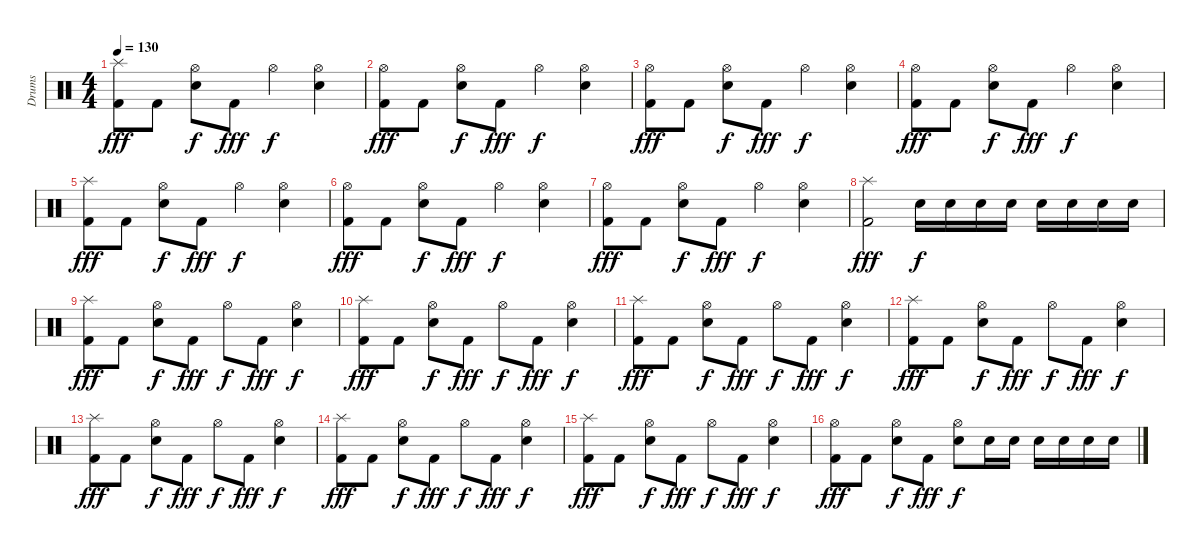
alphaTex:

\track ("Drums" "Drums") {instrument percussion}
\staff {score}
\articulation defaults
\ts (4 4)
\tempo 130
\clef neutral
\ks c
("Splash (hit)" "Kick (hit) 2").8{dy fff} "Kick (hit) 2".8 ("Hi-Hat (open)" "Snare (hit) 2").8{dy f} "Kick (hit) 2".8{dy fff} "Hi-Hat (open)".4{dy f} ("Hi-Hat (open)" "Snare (hit) 2").4 |
("Hi-Hat (open)" "Kick (hit) 2").8{dy fff} "Kick (hit) 2".8 ("Hi-Hat (open)" "Snare (hit) 2").8{dy f} "Kick (hit) 2".8{dy fff} "Hi-Hat (open)".4{dy f} ("Hi-Hat (open)" "Snare (hit) 2").4 |
("Hi-Hat (open)" "Kick (hit) 2").8{dy fff} "Kick (hit) 2".8 ("Hi-Hat (open)" "Snare (hit) 2").8{dy f} "Kick (hit) 2".8{dy fff} "Hi-Hat (open)".4{dy f} ("Hi-Hat (open)" "Snare (hit) 2").4 |
("Hi-Hat (open)" "Kick (hit) 2").8{dy fff} "Kick (hit) 2".8 ("Hi-Hat (open)" "Snare (hit) 2").8{dy f} "Kick (hit) 2".8{dy fff} "Hi-Hat (open)".4{dy f} ("Hi-Hat (open)" "Snare (hit) 2").4 |
("Splash (hit)" "Kick (hit) 2").8{dy fff} "Kick (hit) 2".8 ("Hi-Hat (open)" "Snare (hit) 2").8{dy f} "Kick (hit) 2".8{dy fff} "Hi-Hat (open)".4{dy f} ("Hi-Hat (open)" "Snare (hit) 2").4 |
("Hi-Hat (open)" "Kick (hit) 2").8{dy fff} "Kick (hit) 2".8 ("Hi-Hat (open)" "Snare (hit) 2").8{dy f} "Kick (hit) 2".8{dy fff} "Hi-Hat (open)".4{dy f} ("Hi-Hat (open)" "Snare (hit) 2").4 |
("Hi-Hat (open)" "Kick (hit) 2").8{dy fff} "Kick (hit) 2".8 ("Hi-Hat (open)" "Snare (hit) 2").8{dy f} "Kick (hit) 2".8{dy fff} "Hi-Hat (open)".4{dy f} ("Hi-Hat (open)" "Snare (hit) 2").4 |
("Splash (hit)" "Kick (hit) 2").2{dy fff} "Snare (hit) 2".16{dy f} "Snare (hit) 2".16 "Snare (hit) 2".16 "Snare (hit) 2".16 "Snare (hit) 2".16 "Snare (hit) 2".16 "Snare (hit) 2".16 "Snare (hit) 2".16 |
("Splash (hit)" "Kick (hit) 2").8{dy fff} "Kick (hit) 2".8 ("Hi-Hat (open)" "Snare (hit) 2").8{dy f} "Kick (hit) 2".8{dy fff} "Hi-Hat (open)".8{dy f} "Kick (hit) 2".8{dy fff} ("Hi-Hat (open)" "Snare (hit) 2").4{dy f} |
("Splash (hit)" "Kick (hit) 2").8{dy fff} "Kick (hit) 2".8 ("Hi-Hat (open)" "Snare (hit) 2").8{dy f} "Kick (hit) 2".8{dy fff} "Hi-Hat (open)".8{dy f} "Kick (hit) 2".8{dy fff} ("Hi-Hat (open)" "Snare (hit) 2").4{dy f} |
("Splash (hit)" "Kick (hit) 2").8{dy fff} "Kick (hit) 2".8 ("Hi-Hat (open)" "Snare (hit) 2").8{dy f} "Kick (hit) 2".8{dy fff} "Hi-Hat (open)".8{dy f} "Kick (hit) 2".8{dy fff} ("Hi-Hat (open)" "Snare (hit) 2").4{dy f} |
("Splash (hit)" "Kick (hit) 2").8{dy fff} "Kick (hit) 2".8 ("Hi-Hat (open)" "Snare (hit) 2").8{dy f} "Kick (hit) 2".8{dy fff} "Hi-Hat (open)".8{dy f} "Kick (hit) 2".8{dy fff} ("Hi-Hat (open)" "Snare (hit) 2").4{dy f} |
("Splash (hit)" "Kick (hit) 2").8{dy fff} "Kick (hit) 2".8 ("Hi-Hat (open)" "Snare (hit) 2").8{dy f} "Kick (hit) 2".8{dy fff} "Hi-Hat (open)".8{dy f} "Kick (hit) 2".8{dy fff} ("Hi-Hat (open)" "Snare (hit) 2").4{dy f} |
("Splash (hit)" "Kick (hit) 2").8{dy fff} "Kick (hit) 2".8 ("Hi-Hat (open)" "Snare (hit) 2").8{dy f} "Kick (hit) 2".8{dy fff} "Hi-Hat (open)".8{dy f} "Kick (hit) 2".8{dy fff} ("Hi-Hat (open)" "Snare (hit) 2").4{dy f} |
("Splash (hit)" "Kick (hit) 2").8{dy fff} "Kick (hit) 2".8 ("Hi-Hat (open)" "Snare (hit) 2").8{dy f} "Kick (hit) 2".8{dy fff} "Hi-Hat (open)".8{dy f} "Kick (hit) 2".8{dy fff} ("Hi-Hat (open)" "Snare (hit) 2").4{dy f} |
("Hi-Hat (open)" "Kick (hit) 2").8{dy fff} "Kick (hit) 2".8 ("Hi-Hat (open)" "Snare (hit) 2").8{dy f} "Kick (hit) 2".8{dy fff} ("Hi-Hat (open)" "Snare (hit) 2").8{dy f} "Snare (hit) 2".16 "Snare (hit) 2".16 "Snare (hit) 2".16 "Snare (hit) 2".16 "Snare (hit) 2".16 "Snare (hit) 2".16
